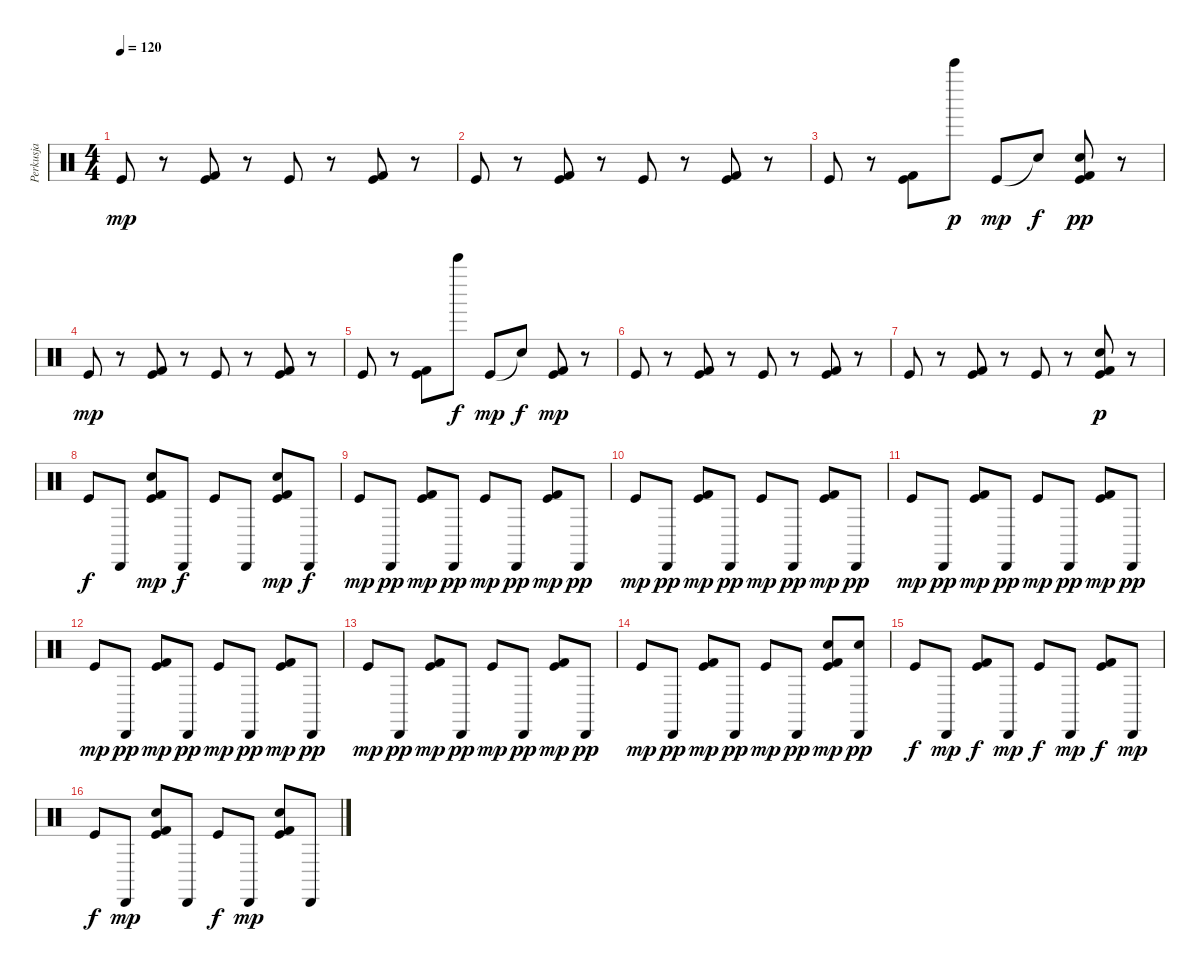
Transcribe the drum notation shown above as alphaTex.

\track ("Perkusja" "Perkusja") {instrument percussion}
\staff {score}
\articulation defaults
\ts (4 4)
\tempo 120
\clef neutral
\ks c "Kick (hit)".8{dy mp}
r.8 ("Kick (hit)" "Kick (hit) 2").8 r.8 "Kick (hit)".8 r.8 ("Kick (hit)" "Kick (hit) 2").8 r.8 |
"Kick (hit)".8 r.8 ("Kick (hit)" "Kick (hit) 2").8 r.8 "Kick (hit)".8 r.8 ("Kick (hit)" "Kick (hit) 2").8 r.8 |
"Kick (hit)".8 r.8 ("Kick (hit)" "Kick (hit) 2").8 "Bell Tree (hit)".8{dy p} "Kick (hit)".8{dy mp} "Snare (hit)"{t}.8{dy f} ("Kick (hit)" "Kick (hit) 2" "Electric Snare (hit)").8{dy pp} r.8 |
"Kick (hit)".8{dy mp} r.8 ("Kick (hit)" "Kick (hit) 2").8 r.8 "Kick (hit)".8 r.8 ("Kick (hit)" "Kick (hit) 2").8 r.8 |
"Kick (hit)".8 r.8 ("Kick (hit)" "Kick (hit) 2").8 "Bell Tree (hit)".8{dy f} "Kick (hit)".8{dy mp} "Snare (hit)"{t}.8{dy f} ("Kick (hit)" "Kick (hit) 2").8{dy mp} r.8 |
"Kick (hit)".8 r.8 ("Kick (hit)" "Kick (hit) 2").8 r.8 "Kick (hit)".8 r.8 ("Kick (hit)" "Kick (hit) 2").8 r.8 |
"Kick (hit)".8 r.8 ("Kick (hit)" "Kick (hit) 2").8 r.8 "Kick (hit)".8 r.8 ("Kick (hit)" "Kick (hit) 2" "Electric Snare (hit)").8{dy p} r.8 |
"Kick (hit)".8{dy f} "Cabasa (hit)".8 ("Kick (hit)" "Kick (hit) 2" "Electric Snare (hit)").8{dy mp} "Cabasa (hit)".8{dy f} "Kick (hit)".8 "Cabasa (hit)".8 ("Kick (hit)" "Kick (hit) 2" "Electric Snare (hit)").8{dy mp} "Cabasa (hit)".8{dy f} |
"Kick (hit)".8{dy mp} "Cabasa (hit)".8{dy pp} ("Kick (hit)" "Kick (hit) 2").8{dy mp} "Cabasa (hit)".8{dy pp} "Kick (hit)".8{dy mp} "Cabasa (hit)".8{dy pp} ("Kick (hit)" "Kick (hit) 2").8{dy mp} "Cabasa (hit)".8{dy pp} |
"Kick (hit)".8{dy mp} "Cabasa (hit)".8{dy pp} ("Kick (hit)" "Kick (hit) 2").8{dy mp} "Cabasa (hit)".8{dy pp} "Kick (hit)".8{dy mp} "Cabasa (hit)".8{dy pp} ("Kick (hit)" "Kick (hit) 2").8{dy mp} "Cabasa (hit)".8{dy pp} |
"Kick (hit)".8{dy mp} "Cabasa (hit)".8{dy pp} ("Kick (hit)" "Kick (hit) 2").8{dy mp} "Cabasa (hit)".8{dy pp} "Kick (hit)".8{dy mp} "Cabasa (hit)".8{dy pp} ("Kick (hit)" "Kick (hit) 2").8{dy mp} "Cabasa (hit)".8{dy pp} |
"Kick (hit)".8{dy mp} "Cabasa (hit)".8{dy pp} ("Kick (hit)" "Kick (hit) 2").8{dy mp} "Cabasa (hit)".8{dy pp} "Kick (hit)".8{dy mp} "Cabasa (hit)".8{dy pp} ("Kick (hit)" "Kick (hit) 2").8{dy mp} "Cabasa (hit)".8{dy pp} |
"Kick (hit)".8{dy mp} "Cabasa (hit)".8{dy pp} ("Kick (hit)" "Kick (hit) 2").8{dy mp} "Cabasa (hit)".8{dy pp} "Kick (hit)".8{dy mp} "Cabasa (hit)".8{dy pp} ("Kick (hit)" "Kick (hit) 2").8{dy mp} "Cabasa (hit)".8{dy pp} |
"Kick (hit)".8{dy mp} "Cabasa (hit)".8{dy pp} ("Kick (hit)" "Kick (hit) 2").8{dy mp} "Cabasa (hit)".8{dy pp} "Kick (hit)".8{dy mp} "Cabasa (hit)".8{dy pp} ("Kick (hit)" "Kick (hit) 2" "Electric Snare (hit)").8{dy mp} ("Electric Snare (hit)" "Cabasa (hit)").8{dy pp} |
"Kick (hit)".8{dy f} "Cabasa (hit)".8{dy mp} ("Kick (hit)" "Kick (hit) 2").8{dy f} "Cabasa (hit)".8{dy mp} "Kick (hit)".8{dy f} "Cabasa (hit)".8{dy mp} ("Kick (hit)" "Kick (hit) 2").8{dy f} "Cabasa (hit)".8{dy mp} |
"Kick (hit)".8{dy f} "Cabasa (hit)".8{dy mp} ("Kick (hit)" "Kick (hit) 2" "Electric Snare (hit)").8 "Cabasa (hit)".8 "Kick (hit)".8{dy f} "Cabasa (hit)".8{dy mp} ("Kick (hit)" "Kick (hit) 2" "Electric Snare (hit)").8 "Cabasa (hit)".8
